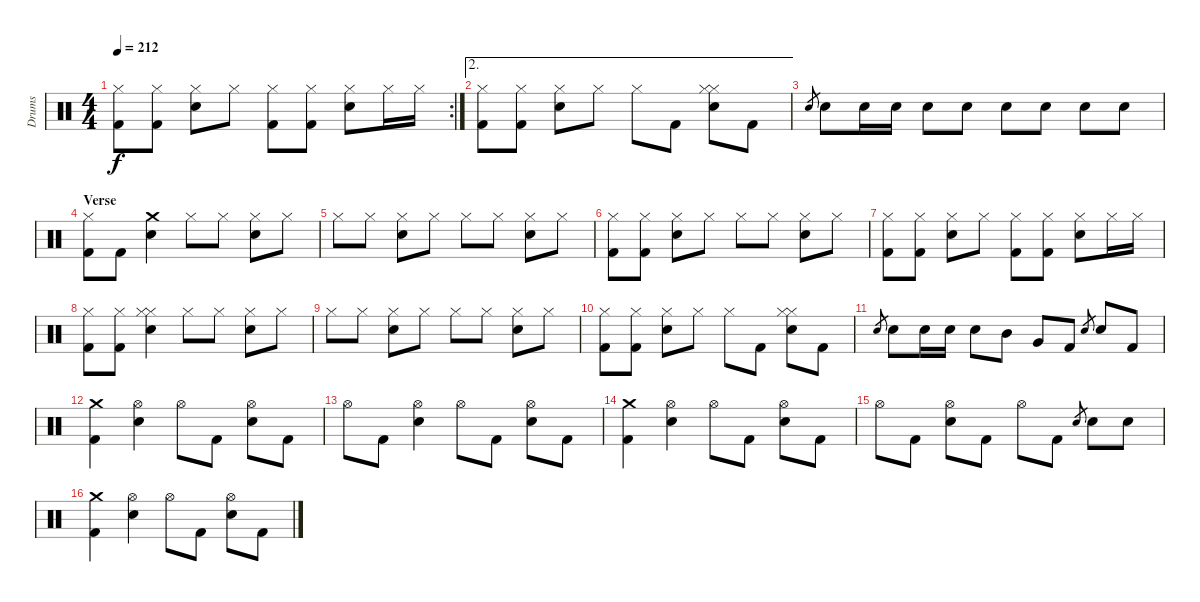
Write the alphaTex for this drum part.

\track ("Drums" "Drums") {instrument percussion}
\staff {score}
\articulation defaults
\rc 2
\ts (4 4)
\tempo 212
\clef neutral
\ks c
("Hi-Hat (closed)" "Kick (hit) 2").8{dy f} ("Hi-Hat (closed)" "Kick (hit) 2").8 ("Hi-Hat (closed)" "Electric Snare (hit)").8 "Hi-Hat (closed)".8 ("Hi-Hat (closed)" "Kick (hit) 2").8 ("Hi-Hat (closed)" "Kick (hit) 2").8 ("Hi-Hat (closed)" "Electric Snare (hit)").8 "Hi-Hat (closed)".16 "Hi-Hat (closed)".16 |
\ae 2
("Hi-Hat (closed)" "Kick (hit) 2").8 ("Hi-Hat (closed)" "Kick (hit) 2").8 ("Hi-Hat (closed)" "Electric Snare (hit)").8 "Hi-Hat (closed)".8 "Hi-Hat (closed)".8 "Kick (hit) 2".8 ("Hi-Hat (closed)" "Hi-Hat (closed)" "Electric Snare (hit)").8 "Kick (hit) 2".8 |
"Electric Snare (hit)".8{gr} "Electric Snare (hit)".8 "Electric Snare (hit)".16 "Electric Snare (hit)".16 "Electric Snare (hit)".8 "Electric Snare (hit)".8 "Electric Snare (hit)".8 "Electric Snare (hit)".8 "Electric Snare (hit)".8 "Electric Snare (hit)".8 |
\section ("" "Verse")
("Hi-Hat (closed)" "Kick (hit) 2").8 "Kick (hit) 2".8 ("Crash medium (hit)" "Electric Snare (hit)").4 "Hi-Hat (closed)".8 "Hi-Hat (closed)".8 ("Hi-Hat (closed)" "Electric Snare (hit)").8 "Hi-Hat (closed)".8 |
"Hi-Hat (closed)".8 "Hi-Hat (closed)".8 ("Hi-Hat (closed)" "Electric Snare (hit)").8 "Hi-Hat (closed)".8 "Hi-Hat (closed)".8 "Hi-Hat (closed)".8 ("Hi-Hat (closed)" "Electric Snare (hit)").8 "Hi-Hat (closed)".8 |
("Hi-Hat (closed)" "Kick (hit) 2").8 ("Hi-Hat (closed)" "Kick (hit) 2").8 ("Hi-Hat (closed)" "Electric Snare (hit)").8 "Hi-Hat (closed)".8 "Hi-Hat (closed)".8 "Hi-Hat (closed)".8 ("Hi-Hat (closed)" "Electric Snare (hit)").8 "Hi-Hat (closed)".8 |
("Hi-Hat (closed)" "Kick (hit) 2").8 ("Hi-Hat (closed)" "Kick (hit) 2").8 ("Hi-Hat (closed)" "Electric Snare (hit)").8 "Hi-Hat (closed)".8 ("Hi-Hat (closed)" "Kick (hit) 2").8 ("Hi-Hat (closed)" "Kick (hit) 2").8 ("Hi-Hat (closed)" "Electric Snare (hit)").8 "Hi-Hat (closed)".16 "Hi-Hat (closed)".16 |
("Hi-Hat (closed)" "Kick (hit) 2").8 ("Hi-Hat (closed)" "Kick (hit) 2").8 ("Hi-Hat (closed)" "Hi-Hat (closed)" "Electric Snare (hit)").4 "Hi-Hat (closed)".8 "Hi-Hat (closed)".8 ("Hi-Hat (closed)" "Electric Snare (hit)").8 "Hi-Hat (closed)".8 |
"Hi-Hat (closed)".8 "Hi-Hat (closed)".8 ("Hi-Hat (closed)" "Electric Snare (hit)").8 "Hi-Hat (closed)".8 "Hi-Hat (closed)".8 "Hi-Hat (closed)".8 ("Hi-Hat (closed)" "Electric Snare (hit)").8 "Hi-Hat (closed)".8 |
("Hi-Hat (closed)" "Kick (hit) 2").8 ("Hi-Hat (closed)" "Kick (hit) 2").8 ("Hi-Hat (closed)" "Electric Snare (hit)").8 "Hi-Hat (closed)".8 "Hi-Hat (closed)".8 "Kick (hit) 2".8 ("Hi-Hat (closed)" "Hi-Hat (closed)" "Electric Snare (hit)").8 "Kick (hit) 2".8 |
"Electric Snare (hit)".8{gr} "Electric Snare (hit)".8 "Electric Snare (hit)".16 "Electric Snare (hit)".16 "Electric Snare (hit)".8 "Mid Tom (hit)".8 "Very Low Tom (hit)".8 "Kick (hit) 2".8 "Electric Snare (hit)".8{gr} "Electric Snare (hit)".8 "Kick (hit) 2".8 |
("Crash medium (hit)" "Kick (hit) 2").4 ("Hi-Hat (open)" "Electric Snare (hit)").4 "Hi-Hat (open)".8 "Kick (hit) 2".8 ("Hi-Hat (open)" "Electric Snare (hit)").8 "Kick (hit) 2".8 |
"Hi-Hat (open)".8 "Kick (hit) 2".8 ("Hi-Hat (open)" "Electric Snare (hit)").4 "Hi-Hat (open)".8 "Kick (hit) 2".8 ("Hi-Hat (open)" "Electric Snare (hit)").8 "Kick (hit) 2".8 |
("Crash medium (hit)" "Kick (hit) 2").4 ("Hi-Hat (open)" "Electric Snare (hit)").4 "Hi-Hat (open)".8 "Kick (hit) 2".8 ("Hi-Hat (open)" "Electric Snare (hit)").8 "Kick (hit) 2".8 |
"Hi-Hat (open)".8 "Kick (hit) 2".8 ("Hi-Hat (open)" "Electric Snare (hit)").8 "Kick (hit) 2".8 "Hi-Hat (open)".8 "Kick (hit) 2".8 "Electric Snare (hit)".8{gr} "Electric Snare (hit)".8 "Electric Snare (hit)".8 |
("Crash medium (hit)" "Kick (hit) 2").4 ("Hi-Hat (open)" "Electric Snare (hit)").4 "Hi-Hat (open)".8 "Kick (hit) 2".8 ("Hi-Hat (open)" "Electric Snare (hit)").8 "Kick (hit) 2".8
